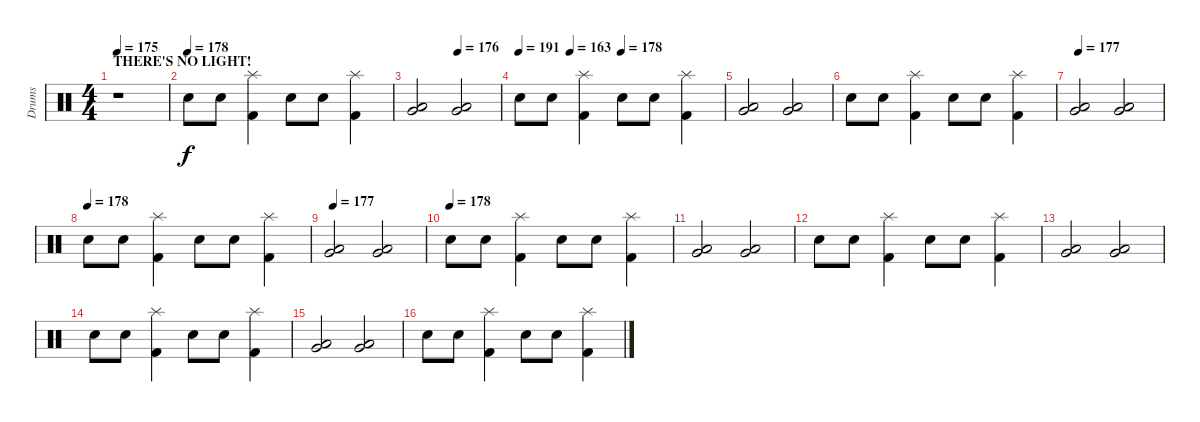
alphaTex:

\track ("Drums" "Drums") {instrument percussion}
\staff {score}
\articulation defaults
\ts (4 4)
\section ("" "THERE'S NO LIGHT!")
\tempo 175
\clef neutral
\ks c
r.1{dy f} |
\tempo (178)
"Snare (hit) 2".8 "Snare (hit) 2".8 ("Kick (hit) 2" "Splash (hit)").4 "Snare (hit) 2".8 "Snare (hit) 2".8 ("Kick (hit) 2" "Splash (hit)").4 |
\tempo (176 0.5)
("Very Low Tom (hit)" "Low Tom (hit)").2 ("Very Low Tom (hit)" "Low Tom (hit)").2 |
\tempo 191
\tempo (163 0.25)
\tempo (178 0.5)
"Snare (hit) 2".8 "Snare (hit) 2".8 ("Kick (hit) 2" "Splash (hit)").4 "Snare (hit) 2".8 "Snare (hit) 2".8 ("Kick (hit) 2" "Splash (hit)").4 |
("Very Low Tom (hit)" "Low Tom (hit)").2 ("Very Low Tom (hit)" "Low Tom (hit)").2 |
"Snare (hit) 2".8 "Snare (hit) 2".8 ("Kick (hit) 2" "Splash (hit)").4 "Snare (hit) 2".8 "Snare (hit) 2".8 ("Kick (hit) 2" "Splash (hit)").4 |
\tempo 177
("Very Low Tom (hit)" "Low Tom (hit)").2 ("Very Low Tom (hit)" "Low Tom (hit)").2 |
\tempo (178)
"Snare (hit) 2".8 "Snare (hit) 2".8 ("Kick (hit) 2" "Splash (hit)").4 "Snare (hit) 2".8 "Snare (hit) 2".8 ("Kick (hit) 2" "Splash (hit)").4 |
\tempo 177
("Very Low Tom (hit)" "Low Tom (hit)").2 ("Very Low Tom (hit)" "Low Tom (hit)").2 |
\tempo (178)
"Snare (hit) 2".8 "Snare (hit) 2".8 ("Kick (hit) 2" "Splash (hit)").4 "Snare (hit) 2".8 "Snare (hit) 2".8 ("Kick (hit) 2" "Splash (hit)").4 |
("Very Low Tom (hit)" "Low Tom (hit)").2 ("Very Low Tom (hit)" "Low Tom (hit)").2 |
"Snare (hit) 2".8 "Snare (hit) 2".8 ("Kick (hit) 2" "Splash (hit)").4 "Snare (hit) 2".8 "Snare (hit) 2".8 ("Kick (hit) 2" "Splash (hit)").4 |
("Very Low Tom (hit)" "Low Tom (hit)").2 ("Very Low Tom (hit)" "Low Tom (hit)").2 |
"Snare (hit) 2".8 "Snare (hit) 2".8 ("Kick (hit) 2" "Splash (hit)").4 "Snare (hit) 2".8 "Snare (hit) 2".8 ("Kick (hit) 2" "Splash (hit)").4 |
("Very Low Tom (hit)" "Low Tom (hit)").2 ("Very Low Tom (hit)" "Low Tom (hit)").2 |
"Snare (hit) 2".8 "Snare (hit) 2".8 ("Kick (hit) 2" "Splash (hit)").4 "Snare (hit) 2".8 "Snare (hit) 2".8 ("Kick (hit) 2" "Splash (hit)").4
